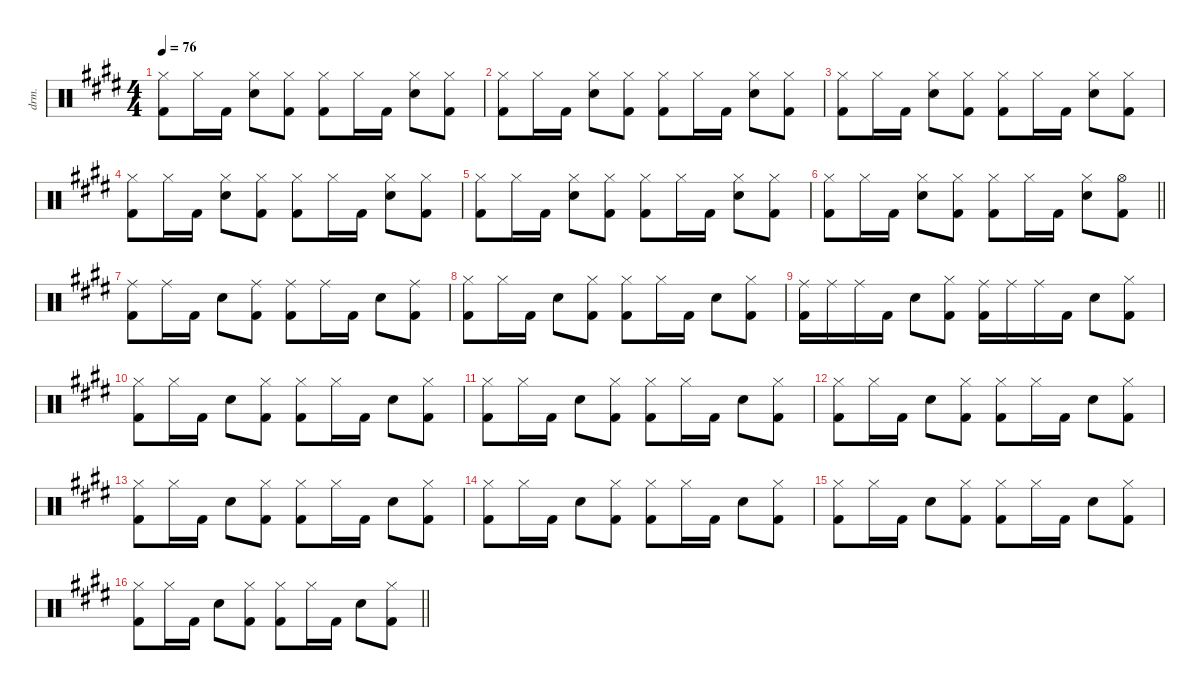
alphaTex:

\defaultSystemsLayout 4
\hideDynamics
\bracketExtendMode nobrackets
\otherSystemsTrackNameOrientation horizontal
\track ("Drums" "drm.") {defaultSystemsLayout 4 instrument percussion}
\staff {score}
\articulation defaults
\ts (4 4)
\tempo 76
\clef neutral
\ks e
("Hi-Hat (closed)"{acc forcenatural} "Kick (hit) 2"{acc forcenatural}).8{dy f beam Down} "Hi-Hat (closed)"{acc forcenatural}.16{beam Down} "Kick (hit) 2"{acc forcenatural}.16{beam Down} ("Hi-Hat (closed)"{acc forcenatural} "Snare (hit) 2"{acc forcenatural}).8{dy mf beam Down} ("Hi-Hat (closed)"{acc forcenatural} "Kick (hit) 2"{acc forcenatural}).8{dy f beam Down} ("Hi-Hat (closed)"{acc forcenatural} "Kick (hit) 2"{acc forcenatural}).8{beam Down} "Hi-Hat (closed)"{acc forcenatural}.16{beam Down} "Kick (hit) 2"{acc forcenatural}.16{beam Down} ("Hi-Hat (closed)"{acc forcenatural} "Snare (hit) 2"{acc forcenatural}).8{dy mf beam Down} ("Hi-Hat (closed)"{acc forcenatural} "Kick (hit) 2"{acc forcenatural}).8{dy f beam Down} |
("Hi-Hat (closed)"{acc forcenatural} "Kick (hit) 2"{acc forcenatural}).8{beam Down} "Hi-Hat (closed)"{acc forcenatural}.16{beam Down} "Kick (hit) 2"{acc forcenatural}.16{beam Down} ("Hi-Hat (closed)"{acc forcenatural} "Snare (hit) 2"{acc forcenatural}).8{dy mf beam Down} ("Hi-Hat (closed)"{acc forcenatural} "Kick (hit) 2"{acc forcenatural}).8{dy f beam Down} ("Hi-Hat (closed)"{acc forcenatural} "Kick (hit) 2"{acc forcenatural}).8{beam Down} "Hi-Hat (closed)"{acc forcenatural}.16{beam Down} "Kick (hit) 2"{acc forcenatural}.16{beam Down} ("Hi-Hat (closed)"{acc forcenatural} "Snare (hit) 2"{acc forcenatural}).8{dy mf beam Down} ("Hi-Hat (closed)"{acc forcenatural} "Kick (hit) 2"{acc forcenatural}).8{dy f beam Down} |
("Hi-Hat (closed)"{acc forcenatural} "Kick (hit) 2"{acc forcenatural}).8{beam Down} "Hi-Hat (closed)"{acc forcenatural}.16{beam Down} "Kick (hit) 2"{acc forcenatural}.16{beam Down} ("Hi-Hat (closed)"{acc forcenatural} "Snare (hit) 2"{acc forcenatural}).8{dy mf beam Down} ("Hi-Hat (closed)"{acc forcenatural} "Kick (hit) 2"{acc forcenatural}).8{dy f beam Down} ("Hi-Hat (closed)"{acc forcenatural} "Kick (hit) 2"{acc forcenatural}).8{beam Down} "Hi-Hat (closed)"{acc forcenatural}.16{beam Down} "Kick (hit) 2"{acc forcenatural}.16{beam Down} ("Hi-Hat (closed)"{acc forcenatural} "Snare (hit) 2"{acc forcenatural}).8{dy mf beam Down} ("Hi-Hat (closed)"{acc forcenatural} "Kick (hit) 2"{acc forcenatural}).8{dy f beam Down} |
("Hi-Hat (closed)"{acc forcenatural} "Kick (hit) 2"{acc forcenatural}).8{beam Down} "Hi-Hat (closed)"{acc forcenatural}.16{beam Down} "Kick (hit) 2"{acc forcenatural}.16{beam Down} ("Hi-Hat (closed)"{acc forcenatural} "Snare (hit) 2"{acc forcenatural}).8{dy mf beam Down} ("Hi-Hat (closed)"{acc forcenatural} "Kick (hit) 2"{acc forcenatural}).8{dy f beam Down} ("Hi-Hat (closed)"{acc forcenatural} "Kick (hit) 2"{acc forcenatural}).8{beam Down} "Hi-Hat (closed)"{acc forcenatural}.16{beam Down} "Kick (hit) 2"{acc forcenatural}.16{beam Down} ("Hi-Hat (closed)"{acc forcenatural} "Snare (hit) 2"{acc forcenatural}).8{dy mf beam Down} ("Hi-Hat (closed)"{acc forcenatural} "Kick (hit) 2"{acc forcenatural}).8{dy f beam Down} |
("Hi-Hat (closed)"{acc forcenatural} "Kick (hit) 2"{acc forcenatural}).8{beam Down} "Hi-Hat (closed)"{acc forcenatural}.16{beam Down} "Kick (hit) 2"{acc forcenatural}.16{beam Down} ("Hi-Hat (closed)"{acc forcenatural} "Snare (hit) 2"{acc forcenatural}).8{dy mf beam Down} ("Hi-Hat (closed)"{acc forcenatural} "Kick (hit) 2"{acc forcenatural}).8{dy f beam Down} ("Hi-Hat (closed)"{acc forcenatural} "Kick (hit) 2"{acc forcenatural}).8{beam Down} "Hi-Hat (closed)"{acc forcenatural}.16{beam Down} "Kick (hit) 2"{acc forcenatural}.16{beam Down} ("Hi-Hat (closed)"{acc forcenatural} "Snare (hit) 2"{acc forcenatural}).8{dy mf beam Down} ("Hi-Hat (closed)"{acc forcenatural} "Kick (hit) 2"{acc forcenatural}).8{dy f beam Down} |
\barLineRight lightlight
("Hi-Hat (closed)"{acc forcenatural} "Kick (hit) 2"{acc forcenatural}).8{beam Down} "Hi-Hat (closed)"{acc forcenatural}.16{beam Down} "Kick (hit) 2"{acc forcenatural}.16{beam Down} ("Hi-Hat (closed)"{acc forcenatural} "Snare (hit) 2"{acc forcenatural}).8{dy mf beam Down} ("Hi-Hat (closed)"{acc forcenatural} "Kick (hit) 2"{acc forcenatural}).8{dy f beam Down} ("Hi-Hat (closed)"{acc forcenatural} "Kick (hit) 2"{acc forcenatural}).8{beam Down} "Hi-Hat (closed)"{acc forcenatural}.16{beam Down} "Kick (hit) 2"{acc forcenatural}.16{beam Down} ("Hi-Hat (closed)"{acc forcenatural} "Snare (hit) 2"{acc forcenatural}).8{dy mf beam Down} ("Hi-Hat (open)"{acc forcenatural} "Kick (hit) 2"{acc forcenatural}).8{dy f beam Down} |
("Ride (middle)"{acc forcenatural} "Kick (hit) 2"{acc forcenatural}).8{beam Down} "Ride (middle)"{acc forcenatural}.16{beam Down} "Kick (hit) 2"{acc forcenatural}.16{beam Down} "Snare (hit) 2"{acc forcenatural}.8{beam Down} ("Ride (middle)"{acc forcenatural} "Kick (hit) 2"{acc forcenatural}).8{beam Down} ("Ride (middle)"{acc forcenatural} "Kick (hit) 2"{acc forcenatural}).8{beam Down} "Ride (middle)"{acc forcenatural}.16{beam Down} "Kick (hit) 2"{acc forcenatural}.16{beam Down} "Snare (hit) 2"{acc forcenatural}.8{beam Down} ("Ride (middle)"{acc forcenatural} "Kick (hit) 2"{acc forcenatural}).8{beam Down} |
("Hi-Hat (closed)"{acc forcenatural} "Kick (hit) 2"{acc forcenatural}).8{beam Down} "Hi-Hat (closed)"{acc forcenatural}.16{beam Down} "Kick (hit) 2"{acc forcenatural}.16{beam Down} "Snare (hit) 2"{acc forcenatural}.8{beam Down} ("Hi-Hat (closed)"{acc forcenatural} "Kick (hit) 2"{acc forcenatural}).8{beam Down} ("Hi-Hat (closed)"{acc forcenatural} "Kick (hit) 2"{acc forcenatural}).8{beam Down} "Hi-Hat (closed)"{acc forcenatural}.16{beam Down} "Kick (hit) 2"{acc forcenatural}.16{beam Down} "Snare (hit) 2"{acc forcenatural}.8{beam Down} ("Hi-Hat (closed)"{acc forcenatural} "Kick (hit) 2"{acc forcenatural}).8{beam Down} |
("Ride (middle)"{acc forcenatural} "Kick (hit) 2"{acc forcenatural}).16{beam Down} "Ride (middle)"{acc forcenatural}.16{beam Down} "Ride (middle)"{acc forcenatural}.16{beam Down} "Kick (hit) 2"{acc forcenatural}.16{beam Down} "Snare (hit) 2"{acc forcenatural}.8{beam Down} ("Hi-Hat (closed)"{acc forcenatural} "Kick (hit) 2"{acc forcenatural}).8{beam Down} ("Ride (middle)"{acc forcenatural} "Kick (hit) 2"{acc forcenatural}).16{beam Down} "Ride (middle)"{acc forcenatural}.16{beam Down} "Ride (middle)"{acc forcenatural}.16{beam Down} "Kick (hit) 2"{acc forcenatural}.16{beam Down} "Snare (hit) 2"{acc forcenatural}.8{beam Down} ("Hi-Hat (closed)"{acc forcenatural} "Kick (hit) 2"{acc forcenatural}).8{beam Down} |
("Hi-Hat (closed)"{acc forcenatural} "Kick (hit) 2"{acc forcenatural}).8{beam Down} "Hi-Hat (closed)"{acc forcenatural}.16{beam Down} "Kick (hit) 2"{acc forcenatural}.16{beam Down} "Snare (hit) 2"{acc forcenatural}.8{beam Down} ("Hi-Hat (closed)"{acc forcenatural} "Kick (hit) 2"{acc forcenatural}).8{beam Down} ("Hi-Hat (closed)"{acc forcenatural} "Kick (hit) 2"{acc forcenatural}).8{beam Down} "Hi-Hat (closed)"{acc forcenatural}.16{beam Down} "Kick (hit) 2"{acc forcenatural}.16{beam Down} "Snare (hit) 2"{acc forcenatural}.8{beam Down} ("Hi-Hat (closed)"{acc forcenatural} "Kick (hit) 2"{acc forcenatural}).8{beam Down} |
("Hi-Hat (closed)"{acc forcenatural} "Kick (hit) 2"{acc forcenatural}).8{beam Down} "Hi-Hat (closed)"{acc forcenatural}.16{beam Down} "Kick (hit) 2"{acc forcenatural}.16{beam Down} "Snare (hit) 2"{acc forcenatural}.8{beam Down} ("Hi-Hat (closed)"{acc forcenatural} "Kick (hit) 2"{acc forcenatural}).8{beam Down} ("Hi-Hat (closed)"{acc forcenatural} "Kick (hit) 2"{acc forcenatural}).8{beam Down} "Hi-Hat (closed)"{acc forcenatural}.16{beam Down} "Kick (hit) 2"{acc forcenatural}.16{beam Down} "Snare (hit) 2"{acc forcenatural}.8{beam Down} ("Hi-Hat (closed)"{acc forcenatural} "Kick (hit) 2"{acc forcenatural}).8{beam Down} |
("Hi-Hat (closed)"{acc forcenatural} "Kick (hit) 2"{acc forcenatural}).8{beam Down} "Hi-Hat (closed)"{acc forcenatural}.16{beam Down} "Kick (hit) 2"{acc forcenatural}.16{beam Down} "Snare (hit) 2"{acc forcenatural}.8{beam Down} ("Hi-Hat (closed)"{acc forcenatural} "Kick (hit) 2"{acc forcenatural}).8{beam Down} ("Hi-Hat (closed)"{acc forcenatural} "Kick (hit) 2"{acc forcenatural}).8{beam Down} "Hi-Hat (closed)"{acc forcenatural}.16{beam Down} "Kick (hit) 2"{acc forcenatural}.16{beam Down} "Snare (hit) 2"{acc forcenatural}.8{beam Down} ("Hi-Hat (closed)"{acc forcenatural} "Kick (hit) 2"{acc forcenatural}).8{beam Down} |
("Hi-Hat (closed)"{acc forcenatural} "Kick (hit) 2"{acc forcenatural}).8{beam Down} "Hi-Hat (closed)"{acc forcenatural}.16{beam Down} "Kick (hit) 2"{acc forcenatural}.16{beam Down} "Snare (hit) 2"{acc forcenatural}.8{beam Down} ("Hi-Hat (closed)"{acc forcenatural} "Kick (hit) 2"{acc forcenatural}).8{beam Down} ("Hi-Hat (closed)"{acc forcenatural} "Kick (hit) 2"{acc forcenatural}).8{beam Down} "Hi-Hat (closed)"{acc forcenatural}.16{beam Down} "Kick (hit) 2"{acc forcenatural}.16{beam Down} "Snare (hit) 2"{acc forcenatural}.8{beam Down} ("Hi-Hat (closed)"{acc forcenatural} "Kick (hit) 2"{acc forcenatural}).8{beam Down} |
("Hi-Hat (closed)"{acc forcenatural} "Kick (hit) 2"{acc forcenatural}).8{beam Down} "Hi-Hat (closed)"{acc forcenatural}.16{beam Down} "Kick (hit) 2"{acc forcenatural}.16{beam Down} "Snare (hit) 2"{acc forcenatural}.8{beam Down} ("Hi-Hat (closed)"{acc forcenatural} "Kick (hit) 2"{acc forcenatural}).8{beam Down} ("Hi-Hat (closed)"{acc forcenatural} "Kick (hit) 2"{acc forcenatural}).8{beam Down} "Hi-Hat (closed)"{acc forcenatural}.16{beam Down} "Kick (hit) 2"{acc forcenatural}.16{beam Down} "Snare (hit) 2"{acc forcenatural}.8{beam Down} ("Hi-Hat (closed)"{acc forcenatural} "Kick (hit) 2"{acc forcenatural}).8{beam Down} |
("Hi-Hat (closed)"{acc forcenatural} "Kick (hit) 2"{acc forcenatural}).8{beam Down} "Hi-Hat (closed)"{acc forcenatural}.16{beam Down} "Kick (hit) 2"{acc forcenatural}.16{beam Down} "Snare (hit) 2"{acc forcenatural}.8{beam Down} ("Hi-Hat (closed)"{acc forcenatural} "Kick (hit) 2"{acc forcenatural}).8{beam Down} ("Hi-Hat (closed)"{acc forcenatural} "Kick (hit) 2"{acc forcenatural}).8{beam Down} "Hi-Hat (closed)"{acc forcenatural}.16{beam Down} "Kick (hit) 2"{acc forcenatural}.16{beam Down} "Snare (hit) 2"{acc forcenatural}.8{beam Down} ("Hi-Hat (closed)"{acc forcenatural} "Kick (hit) 2"{acc forcenatural}).8{beam Down} |
\barLineRight lightlight
("Hi-Hat (closed)"{acc forcenatural} "Kick (hit) 2"{acc forcenatural}).8{beam Down} "Hi-Hat (closed)"{acc forcenatural}.16{beam Down} "Kick (hit) 2"{acc forcenatural}.16{beam Down} "Snare (hit) 2"{acc forcenatural}.8{beam Down} ("Hi-Hat (closed)"{acc forcenatural} "Kick (hit) 2"{acc forcenatural}).8{beam Down} ("Hi-Hat (closed)"{acc forcenatural} "Kick (hit) 2"{acc forcenatural}).8{beam Down} "Hi-Hat (closed)"{acc forcenatural}.16{beam Down} "Kick (hit) 2"{acc forcenatural}.16{beam Down} "Snare (hit) 2"{acc forcenatural}.8{beam Down} ("Hi-Hat (closed)"{acc forcenatural} "Kick (hit) 2"{acc forcenatural}).8{beam Down}
